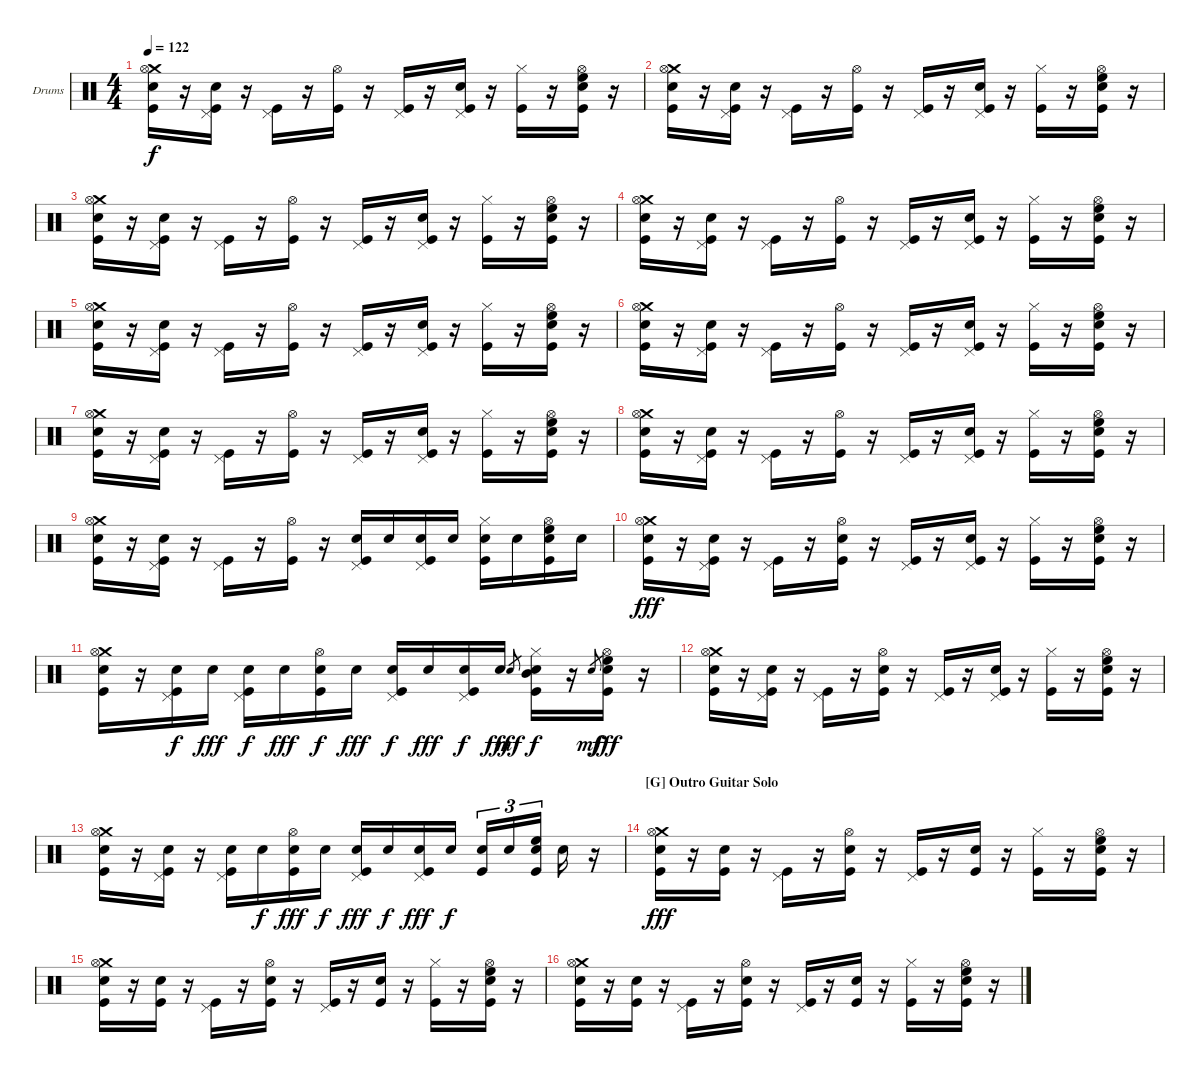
\bracketExtendMode groupsimilarinstruments
\firstSystemTrackNameOrientation horizontal
\otherSystemsTrackNameOrientation horizontal
\track ("Drumkit" "Drums") {instrument percussion}
\staff {score}
\articulation defaults
\ts (4 4)
\tempo 122
\clef neutral
\ks c
("Crash medium (hit)" "Hi-Hat (open)" "Snare (hit) 2" "Kick (hit)").16{dy f} r.16 ("Pedal Hi-Hat (hit)" "Snare (hit) 2" "Kick (hit)").16 r.16 ("Pedal Hi-Hat (hit)" "Kick (hit)").16 r.16 ("Hi-Hat (open)" "Kick (hit)").16 r.16 ("Pedal Hi-Hat (hit)" "Kick (hit)").16 r.16 ("Pedal Hi-Hat (hit)" "Snare (hit) 2" "Kick (hit)").16 r.16 ("Hi-Hat (closed)" "Kick (hit)").16 r.16 ("Hi-Hat (open)" "Snare (hit) 2" "High Floor Tom (hit)" "Kick (hit)").16 r.16 |
("Crash medium (hit)" "Hi-Hat (open)" "Snare (hit) 2" "Kick (hit)").16 r.16 ("Pedal Hi-Hat (hit)" "Snare (hit) 2" "Kick (hit)").16 r.16 ("Pedal Hi-Hat (hit)" "Kick (hit)").16 r.16 ("Hi-Hat (open)" "Kick (hit)").16 r.16 ("Pedal Hi-Hat (hit)" "Kick (hit)").16 r.16 ("Pedal Hi-Hat (hit)" "Snare (hit) 2" "Kick (hit)").16 r.16 ("Hi-Hat (closed)" "Kick (hit)").16 r.16 ("Hi-Hat (open)" "Snare (hit) 2" "High Floor Tom (hit)" "Kick (hit)").16 r.16 |
("Crash medium (hit)" "Hi-Hat (open)" "Snare (hit) 2" "Kick (hit)").16 r.16 ("Pedal Hi-Hat (hit)" "Snare (hit) 2" "Kick (hit)").16 r.16 ("Pedal Hi-Hat (hit)" "Kick (hit)").16 r.16 ("Hi-Hat (open)" "Kick (hit)").16 r.16 ("Pedal Hi-Hat (hit)" "Kick (hit)").16 r.16 ("Pedal Hi-Hat (hit)" "Snare (hit) 2" "Kick (hit)").16 r.16 ("Hi-Hat (closed)" "Kick (hit)").16 r.16 ("Hi-Hat (open)" "Snare (hit) 2" "High Floor Tom (hit)" "Kick (hit)").16 r.16 |
("Crash medium (hit)" "Hi-Hat (open)" "Snare (hit) 2" "Kick (hit)").16 r.16 ("Pedal Hi-Hat (hit)" "Snare (hit) 2" "Kick (hit)").16 r.16 ("Pedal Hi-Hat (hit)" "Kick (hit)").16 r.16 ("Hi-Hat (open)" "Kick (hit)").16 r.16 ("Pedal Hi-Hat (hit)" "Kick (hit)").16 r.16 ("Pedal Hi-Hat (hit)" "Snare (hit) 2" "Kick (hit)").16 r.16 ("Hi-Hat (closed)" "Kick (hit)").16 r.16 ("Hi-Hat (open)" "Snare (hit) 2" "High Floor Tom (hit)" "Kick (hit)").16 r.16 |
("Crash medium (hit)" "Hi-Hat (open)" "Snare (hit) 2" "Kick (hit)").16 r.16 ("Pedal Hi-Hat (hit)" "Snare (hit) 2" "Kick (hit)").16 r.16 ("Pedal Hi-Hat (hit)" "Kick (hit)").16 r.16 ("Hi-Hat (open)" "Kick (hit)").16 r.16 ("Pedal Hi-Hat (hit)" "Kick (hit)").16 r.16 ("Pedal Hi-Hat (hit)" "Snare (hit) 2" "Kick (hit)").16 r.16 ("Hi-Hat (closed)" "Kick (hit)").16 r.16 ("Hi-Hat (open)" "Snare (hit) 2" "High Floor Tom (hit)" "Kick (hit)").16 r.16 |
("Crash medium (hit)" "Hi-Hat (open)" "Snare (hit) 2" "Kick (hit)").16 r.16 ("Pedal Hi-Hat (hit)" "Snare (hit) 2" "Kick (hit)").16 r.16 ("Pedal Hi-Hat (hit)" "Kick (hit)").16 r.16 ("Hi-Hat (open)" "Kick (hit)").16 r.16 ("Pedal Hi-Hat (hit)" "Kick (hit)").16 r.16 ("Pedal Hi-Hat (hit)" "Snare (hit) 2" "Kick (hit)").16 r.16 ("Hi-Hat (closed)" "Kick (hit)").16 r.16 ("Hi-Hat (open)" "Snare (hit) 2" "High Floor Tom (hit)" "Kick (hit)").16 r.16 |
("Crash medium (hit)" "Hi-Hat (open)" "Snare (hit) 2" "Kick (hit)").16 r.16 ("Pedal Hi-Hat (hit)" "Snare (hit) 2" "Kick (hit)").16 r.16 ("Pedal Hi-Hat (hit)" "Kick (hit)").16 r.16 ("Hi-Hat (open)" "Kick (hit)").16 r.16 ("Pedal Hi-Hat (hit)" "Kick (hit)").16 r.16 ("Pedal Hi-Hat (hit)" "Snare (hit) 2" "Kick (hit)").16 r.16 ("Hi-Hat (closed)" "Kick (hit)").16 r.16 ("Hi-Hat (open)" "Snare (hit) 2" "High Floor Tom (hit)" "Kick (hit)").16 r.16 |
("Crash medium (hit)" "Hi-Hat (open)" "Snare (hit) 2" "Kick (hit)").16 r.16 ("Pedal Hi-Hat (hit)" "Snare (hit) 2" "Kick (hit)").16 r.16 ("Pedal Hi-Hat (hit)" "Kick (hit)").16 r.16 ("Hi-Hat (open)" "Kick (hit)").16 r.16 ("Pedal Hi-Hat (hit)" "Kick (hit)").16 r.16 ("Pedal Hi-Hat (hit)" "Snare (hit) 2" "Kick (hit)").16 r.16 ("Hi-Hat (closed)" "Kick (hit)").16 r.16 ("Hi-Hat (open)" "Snare (hit) 2" "High Floor Tom (hit)" "Kick (hit)").16 r.16 |
("Crash medium (hit)" "Hi-Hat (open)" "Snare (hit) 2" "Kick (hit)").16 r.16 ("Pedal Hi-Hat (hit)" "Snare (hit) 2" "Kick (hit)").16 r.16 ("Pedal Hi-Hat (hit)" "Kick (hit)").16 r.16 ("Hi-Hat (open)" "Kick (hit)").16 r.16 ("Pedal Hi-Hat (hit)" "Snare (hit) 2" "Kick (hit)").16 "Snare (hit) 2".16 ("Pedal Hi-Hat (hit)" "Snare (hit) 2" "Kick (hit)").16 "Snare (hit) 2".16 ("Hi-Hat (closed)" "Snare (hit) 2" "Kick (hit)").16 "Snare (hit) 2".16 ("Hi-Hat (open)" "Snare (hit) 2" "High Floor Tom (hit)" "Kick (hit)").16 "Snare (hit) 2".16 |
("Crash medium (hit)" "Hi-Hat (open)" "Snare (hit) 2" "Kick (hit)").16{dy fff} r.16 ("Pedal Hi-Hat (hit)" "Snare (hit) 2" "Kick (hit)").16 r.16 ("Pedal Hi-Hat (hit)" "Kick (hit)").16 r.16 ("Hi-Hat (open)" "Snare (hit) 2" "Kick (hit)").16 r.16 ("Pedal Hi-Hat (hit)" "Kick (hit)").16 r.16 ("Pedal Hi-Hat (hit)" "Snare (hit) 2" "Kick (hit)").16 r.16 ("Hi-Hat (closed)" "Kick (hit)").16 r.16 ("Hi-Hat (open)" "Snare (hit) 2" "High Floor Tom (hit)" "Kick (hit)").16 r.16 |
("Crash medium (hit)" "Hi-Hat (open)" "Snare (hit) 2" "Kick (hit)").16 r.16 ("Pedal Hi-Hat (hit)" "Snare (hit) 2" "Kick (hit)").16{dy f} "Snare (hit) 2".16{dy fff} ("Pedal Hi-Hat (hit)" "Snare (hit) 2" "Kick (hit)").16{dy f} "Snare (hit) 2".16{dy fff} ("Hi-Hat (open)" "Snare (hit) 2" "Kick (hit)").16{dy f} "Snare (hit) 2".16{dy fff} ("Pedal Hi-Hat (hit)" "Snare (hit) 2" "Kick (hit)").16{dy f} "Snare (hit) 2".16{dy fff} ("Pedal Hi-Hat (hit)" "Snare (hit) 2" "Kick (hit)").16{dy f} "Snare (hit) 2".16{dy fff} "Snare (hit) 2".8{gr dy mf} ("Hi-Hat (closed)" "Snare (hit) 2" "Mid Tom (hit)" "Kick (hit)").16{dy f} r.16 "Snare (hit) 2".8{gr dy mf} ("Hi-Hat (open)" "Snare (hit) 2" "High Floor Tom (hit)" "Kick (hit)").16{dy fff} r.16 |
("Crash medium (hit)" "Hi-Hat (open)" "Snare (hit) 2" "Kick (hit)").16 r.16 ("Pedal Hi-Hat (hit)" "Snare (hit) 2" "Kick (hit)").16 r.16 ("Pedal Hi-Hat (hit)" "Kick (hit)").16 r.16 ("Hi-Hat (open)" "Snare (hit) 2" "Kick (hit)").16 r.16 ("Pedal Hi-Hat (hit)" "Kick (hit)").16 r.16 ("Pedal Hi-Hat (hit)" "Snare (hit) 2" "Kick (hit)").16 r.16 ("Hi-Hat (closed)" "Kick (hit)").16 r.16 ("Hi-Hat (open)" "Snare (hit) 2" "High Floor Tom (hit)" "Kick (hit)").16 r.16 |
("Crash medium (hit)" "Hi-Hat (open)" "Snare (hit) 2" "Kick (hit)").16 r.16 ("Pedal Hi-Hat (hit)" "Snare (hit) 2" "Kick (hit)").16 r.16 ("Pedal Hi-Hat (hit)" "Snare (hit) 2" "Kick (hit)").16 "Snare (hit) 2".16{dy f} ("Hi-Hat (open)" "Snare (hit) 2" "Kick (hit)").16{dy fff} "Snare (hit) 2".16{dy f} ("Pedal Hi-Hat (hit)" "Snare (hit) 2" "Kick (hit)").16{dy fff} "Snare (hit) 2".16{dy f} ("Pedal Hi-Hat (hit)" "Snare (hit) 2" "Kick (hit)").16{dy fff} "Snare (hit) 2".16{dy f} ("Snare (hit) 2" "Kick (hit)").16{tu (3 2)} "Snare (hit) 2".16{tu (3 2)} ("Snare (hit) 2" "High Floor Tom (hit)" "Kick (hit)").16{tu (3 2)} "Snare (hit) 2".16 r.16 |
\section ("G" "Outro Guitar Solo")
("Crash medium (hit)" "Hi-Hat (open)" "Snare (hit) 2" "Kick (hit)").16{dy fff} r.16 ("Snare (hit) 2" "Kick (hit)").16 r.16 ("Pedal Hi-Hat (hit)" "Kick (hit)").16 r.16 ("Hi-Hat (open)" "Snare (hit) 2" "Kick (hit)").16 r.16 ("Pedal Hi-Hat (hit)" "Kick (hit)").16 r.16 ("Snare (hit) 2" "Kick (hit)").16 r.16 ("Hi-Hat (closed)" "Kick (hit)").16 r.16 ("Hi-Hat (open)" "Snare (hit) 2" "High Floor Tom (hit)" "Kick (hit)").16 r.16 |
("Crash medium (hit)" "Hi-Hat (open)" "Snare (hit) 2" "Kick (hit)").16 r.16 ("Snare (hit) 2" "Kick (hit)").16 r.16 ("Pedal Hi-Hat (hit)" "Kick (hit)").16 r.16 ("Hi-Hat (open)" "Snare (hit) 2" "Kick (hit)").16 r.16 ("Pedal Hi-Hat (hit)" "Kick (hit)").16 r.16 ("Snare (hit) 2" "Kick (hit)").16 r.16 ("Hi-Hat (closed)" "Kick (hit)").16 r.16 ("Hi-Hat (open)" "Snare (hit) 2" "High Floor Tom (hit)" "Kick (hit)").16 r.16 |
("Crash medium (hit)" "Hi-Hat (open)" "Snare (hit) 2" "Kick (hit)").16 r.16 ("Snare (hit) 2" "Kick (hit)").16 r.16 ("Pedal Hi-Hat (hit)" "Kick (hit)").16 r.16 ("Hi-Hat (open)" "Snare (hit) 2" "Kick (hit)").16 r.16 ("Pedal Hi-Hat (hit)" "Kick (hit)").16 r.16 ("Snare (hit) 2" "Kick (hit)").16 r.16 ("Hi-Hat (closed)" "Kick (hit)").16 r.16 ("Hi-Hat (open)" "Snare (hit) 2" "High Floor Tom (hit)" "Kick (hit)").16 r.16
